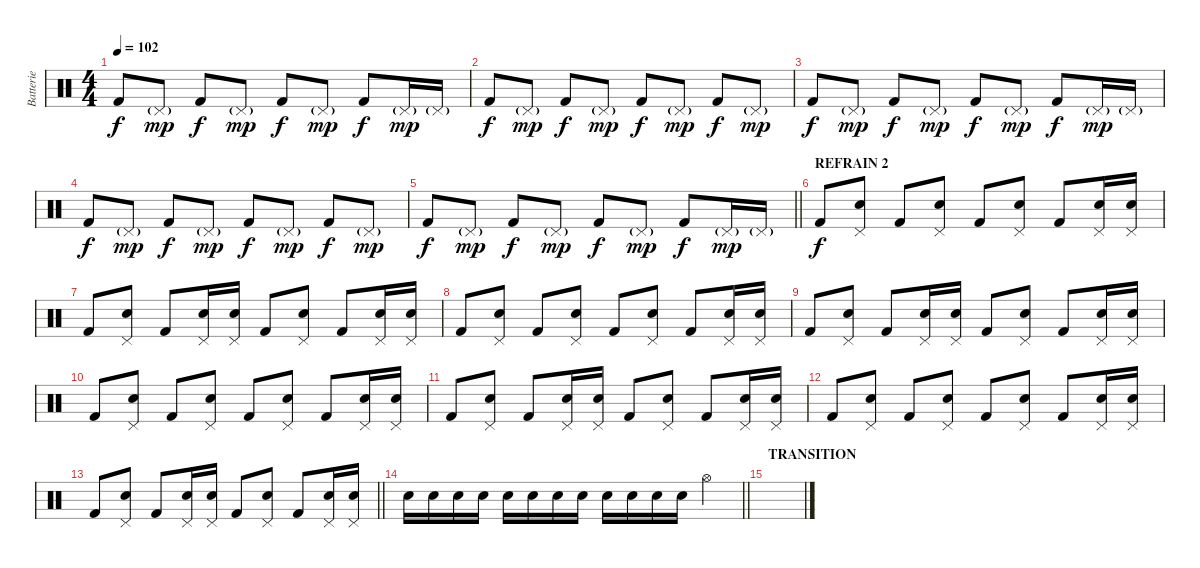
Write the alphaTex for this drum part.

\track ("Batterie" "Batterie") {instrument percussion}
\staff {score}
\articulation defaults
\ts (4 4)
\tempo 102
\clef neutral
\ks c "Kick (hit) 2".8{dy f} "Pedal Hi-Hat (hit)"{g}.8{dy mp} "Kick (hit) 2".8{dy f} "Pedal Hi-Hat (hit)"{g}.8{dy mp} "Kick (hit) 2".8{dy f} "Pedal Hi-Hat (hit)"{g}.8{dy mp} "Kick (hit) 2".8{dy f} "Pedal Hi-Hat (hit)"{g}.16{dy mp} "Pedal Hi-Hat (hit)"{g}.16
|
"Kick (hit) 2".8{dy f} "Pedal Hi-Hat (hit)"{g}.8{dy mp} "Kick (hit) 2".8{dy f} "Pedal Hi-Hat (hit)"{g}.8{dy mp} "Kick (hit) 2".8{dy f} "Pedal Hi-Hat (hit)"{g}.8{dy mp} "Kick (hit) 2".8{dy f} "Pedal Hi-Hat (hit)"{g}.8{dy mp} |
"Kick (hit) 2".8{dy f} "Pedal Hi-Hat (hit)"{g}.8{dy mp} "Kick (hit) 2".8{dy f} "Pedal Hi-Hat (hit)"{g}.8{dy mp} "Kick (hit) 2".8{dy f} "Pedal Hi-Hat (hit)"{g}.8{dy mp} "Kick (hit) 2".8{dy f} "Pedal Hi-Hat (hit)"{g}.16{dy mp} "Pedal Hi-Hat (hit)"{g}.16 |
"Kick (hit) 2".8{dy f} "Pedal Hi-Hat (hit)"{g}.8{dy mp} "Kick (hit) 2".8{dy f} "Pedal Hi-Hat (hit)"{g}.8{dy mp} "Kick (hit) 2".8{dy f} "Pedal Hi-Hat (hit)"{g}.8{dy mp} "Kick (hit) 2".8{dy f} "Pedal Hi-Hat (hit)"{g}.8{dy mp} |
\barLineRight lightlight "Kick (hit) 2".8{dy f} "Pedal Hi-Hat (hit)"{g}.8{dy mp} "Kick (hit) 2".8{dy f} "Pedal Hi-Hat (hit)"{g}.8{dy mp} "Kick (hit) 2".8{dy f} "Pedal Hi-Hat (hit)"{g}.8{dy mp} "Kick (hit) 2".8{dy f} "Pedal Hi-Hat (hit)"{g}.16{dy mp} "Pedal Hi-Hat (hit)"{g}.16
|
\section ("" "REFRAIN 2")
"Kick (hit) 2".8{dy f} ("Snare (hit) 2" "Pedal Hi-Hat (hit)").8 "Kick (hit) 2".8 ("Snare (hit) 2" "Pedal Hi-Hat (hit)").8 "Kick (hit) 2".8 ("Snare (hit) 2" "Pedal Hi-Hat (hit)").8 "Kick (hit) 2".8 ("Snare (hit) 2" "Pedal Hi-Hat (hit)").16 ("Snare (hit) 2" "Pedal Hi-Hat (hit)").16 |
"Kick (hit) 2".8 ("Snare (hit) 2" "Pedal Hi-Hat (hit)").8 "Kick (hit) 2".8 ("Snare (hit) 2" "Pedal Hi-Hat (hit)").16 ("Snare (hit) 2" "Pedal Hi-Hat (hit)").16 "Kick (hit) 2".8 ("Snare (hit) 2" "Pedal Hi-Hat (hit)").8 "Kick (hit) 2".8 ("Snare (hit) 2" "Pedal Hi-Hat (hit)").16 ("Snare (hit) 2" "Pedal Hi-Hat (hit)").16 |
"Kick (hit) 2".8 ("Snare (hit) 2" "Pedal Hi-Hat (hit)").8 "Kick (hit) 2".8 ("Snare (hit) 2" "Pedal Hi-Hat (hit)").8 "Kick (hit) 2".8 ("Snare (hit) 2" "Pedal Hi-Hat (hit)").8 "Kick (hit) 2".8 ("Snare (hit) 2" "Pedal Hi-Hat (hit)").16 ("Snare (hit) 2" "Pedal Hi-Hat (hit)").16 |
"Kick (hit) 2".8 ("Snare (hit) 2" "Pedal Hi-Hat (hit)").8 "Kick (hit) 2".8 ("Snare (hit) 2" "Pedal Hi-Hat (hit)").16 ("Snare (hit) 2" "Pedal Hi-Hat (hit)").16 "Kick (hit) 2".8 ("Snare (hit) 2" "Pedal Hi-Hat (hit)").8 "Kick (hit) 2".8 ("Snare (hit) 2" "Pedal Hi-Hat (hit)").16 ("Snare (hit) 2" "Pedal Hi-Hat (hit)").16 |
"Kick (hit) 2".8 ("Snare (hit) 2" "Pedal Hi-Hat (hit)").8 "Kick (hit) 2".8 ("Snare (hit) 2" "Pedal Hi-Hat (hit)").8 "Kick (hit) 2".8 ("Snare (hit) 2" "Pedal Hi-Hat (hit)").8 "Kick (hit) 2".8 ("Snare (hit) 2" "Pedal Hi-Hat (hit)").16 ("Snare (hit) 2" "Pedal Hi-Hat (hit)").16 |
"Kick (hit) 2".8 ("Snare (hit) 2" "Pedal Hi-Hat (hit)").8 "Kick (hit) 2".8 ("Snare (hit) 2" "Pedal Hi-Hat (hit)").16 ("Snare (hit) 2" "Pedal Hi-Hat (hit)").16 "Kick (hit) 2".8 ("Snare (hit) 2" "Pedal Hi-Hat (hit)").8 "Kick (hit) 2".8 ("Snare (hit) 2" "Pedal Hi-Hat (hit)").16 ("Snare (hit) 2" "Pedal Hi-Hat (hit)").16 |
"Kick (hit) 2".8 ("Snare (hit) 2" "Pedal Hi-Hat (hit)").8 "Kick (hit) 2".8 ("Snare (hit) 2" "Pedal Hi-Hat (hit)").8 "Kick (hit) 2".8 ("Snare (hit) 2" "Pedal Hi-Hat (hit)").8 "Kick (hit) 2".8 ("Snare (hit) 2" "Pedal Hi-Hat (hit)").16 ("Snare (hit) 2" "Pedal Hi-Hat (hit)").16 |
\barLineRight lightlight "Kick (hit) 2".8
("Snare (hit) 2" "Pedal Hi-Hat (hit)").8 "Kick (hit) 2".8 ("Snare (hit) 2" "Pedal Hi-Hat (hit)").16 ("Snare (hit) 2" "Pedal Hi-Hat (hit)").16 "Kick (hit) 2".8 ("Snare (hit) 2" "Pedal Hi-Hat (hit)").8 "Kick (hit) 2".8 ("Snare (hit) 2" "Pedal Hi-Hat (hit)").16 ("Snare (hit) 2" "Pedal Hi-Hat (hit)").16 |
\barLineRight lightlight "Snare (hit) 2".16 "Snare (hit) 2".16 "Snare (hit) 2".16 "Snare (hit) 2".16 "Snare (hit) 2".16 "Snare (hit) 2".16 "Snare (hit) 2".16 "Snare (hit) 2".16 "Snare (hit) 2".16 "Snare (hit) 2".16 "Snare (hit) 2".16 "Snare (hit) 2".16 "Hi-Hat (open)".4
|
\section ("" "TRANSITION")
